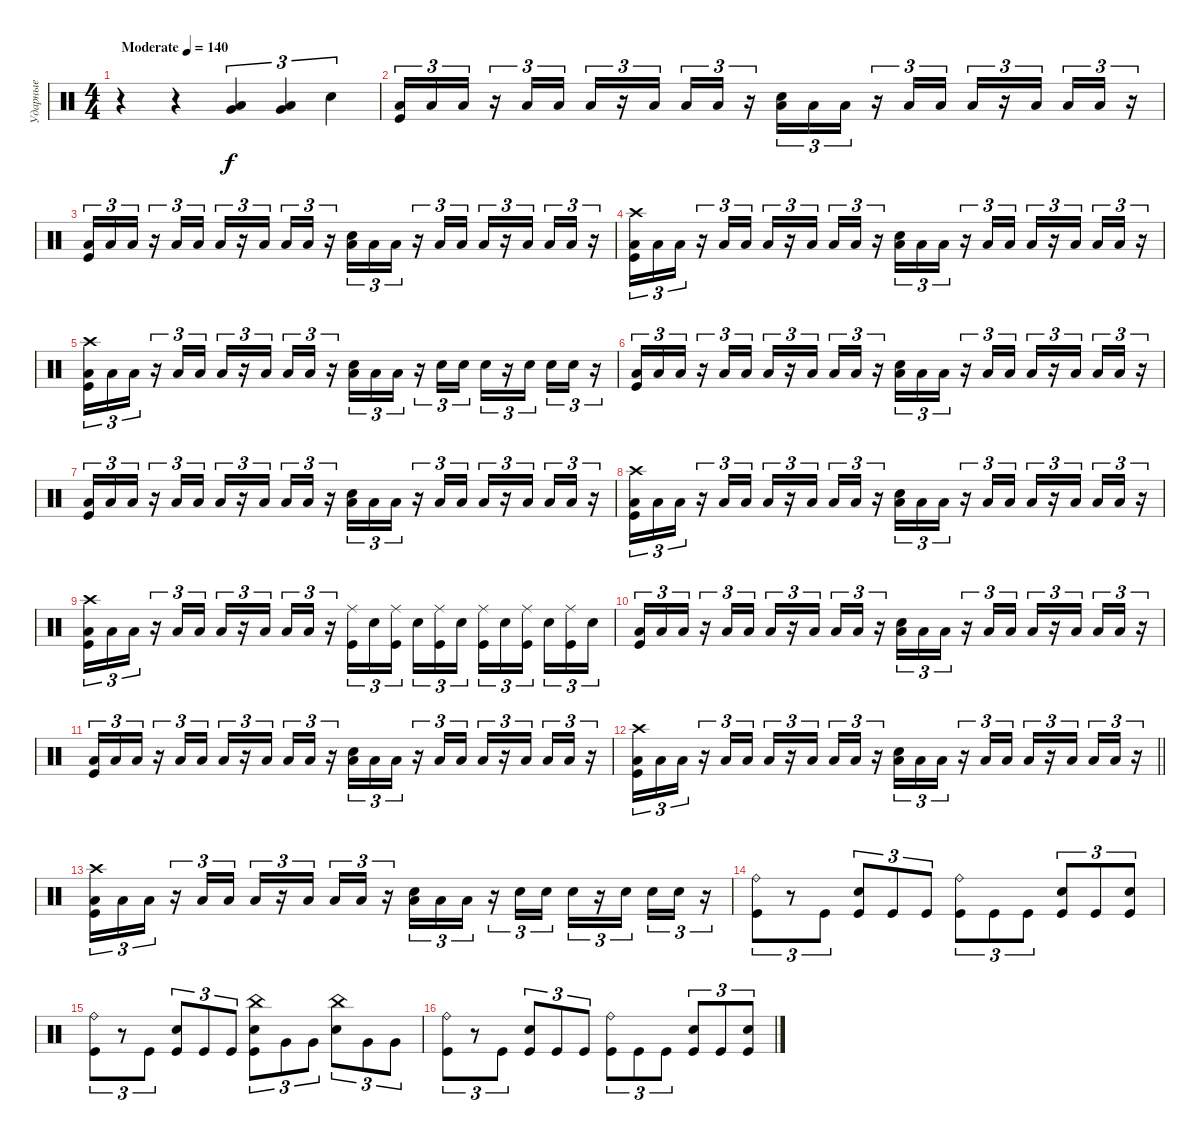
\track ("Ударные" "Ударные") {instrument percussion}
\staff {score}
\articulation defaults
\ts (4 4)
\tempo (140 "Moderate")
\clef neutral
\ks c
r.4{dy f} r.4 ("Very Low Tom (hit)" "Low Floor Tom (hit)").4{tu (3 2)} ("Very Low Tom (hit)" "Low Floor Tom (hit)").4{tu (3 2)} "Electric Snare (hit)".4{tu (3 2)} |
("Low Floor Tom (hit)" "Kick (hit)").16{tu (3 2)} "Low Floor Tom (hit)".16{tu (3 2)} "Low Floor Tom (hit)".16{tu (3 2)} r.16{tu (3 2)} "Low Floor Tom (hit)".16{tu (3 2)} "Low Floor Tom (hit)".16{tu (3 2)} "Low Floor Tom (hit)".16{tu (3 2)} r.16{tu (3 2)} "Low Floor Tom (hit)".16{tu (3 2) beam splitsecondary} "Low Floor Tom (hit)".16{tu (3 2)} "Low Floor Tom (hit)".16{tu (3 2)} r.16{tu (3 2)} ("Low Floor Tom (hit)" "Electric Snare (hit)").16{tu (3 2)} "Low Floor Tom (hit)".16{tu (3 2)} "Low Floor Tom (hit)".16{tu (3 2)} r.16{tu (3 2)} "Low Floor Tom (hit)".16{tu (3 2)} "Low Floor Tom (hit)".16{tu (3 2)} "Low Floor Tom (hit)".16{tu (3 2)} r.16{tu (3 2)} "Low Floor Tom (hit)".16{tu (3 2) beam splitsecondary} "Low Floor Tom (hit)".16{tu (3 2)} "Low Floor Tom (hit)".16{tu (3 2)} r.16{tu (3 2)} |
("Low Floor Tom (hit)" "Kick (hit)").16{tu (3 2)} "Low Floor Tom (hit)".16{tu (3 2)} "Low Floor Tom (hit)".16{tu (3 2)} r.16{tu (3 2)} "Low Floor Tom (hit)".16{tu (3 2)} "Low Floor Tom (hit)".16{tu (3 2)} "Low Floor Tom (hit)".16{tu (3 2)} r.16{tu (3 2)} "Low Floor Tom (hit)".16{tu (3 2) beam splitsecondary} "Low Floor Tom (hit)".16{tu (3 2)} "Low Floor Tom (hit)".16{tu (3 2)} r.16{tu (3 2)} ("Low Floor Tom (hit)" "Electric Snare (hit)").16{tu (3 2)} "Low Floor Tom (hit)".16{tu (3 2)} "Low Floor Tom (hit)".16{tu (3 2)} r.16{tu (3 2)} "Low Floor Tom (hit)".16{tu (3 2)} "Low Floor Tom (hit)".16{tu (3 2)} "Low Floor Tom (hit)".16{tu (3 2)} r.16{tu (3 2)} "Low Floor Tom (hit)".16{tu (3 2) beam splitsecondary} "Low Floor Tom (hit)".16{tu (3 2)} "Low Floor Tom (hit)".16{tu (3 2)} r.16{tu (3 2)} |
("Low Floor Tom (hit)" "Kick (hit)" "Crash high (hit)").16{tu (3 2)} "Low Floor Tom (hit)".16{tu (3 2)} "Low Floor Tom (hit)".16{tu (3 2)} r.16{tu (3 2)} "Low Floor Tom (hit)".16{tu (3 2)} "Low Floor Tom (hit)".16{tu (3 2)} "Low Floor Tom (hit)".16{tu (3 2)} r.16{tu (3 2)} "Low Floor Tom (hit)".16{tu (3 2) beam splitsecondary} "Low Floor Tom (hit)".16{tu (3 2)} "Low Floor Tom (hit)".16{tu (3 2)} r.16{tu (3 2)} ("Low Floor Tom (hit)" "Electric Snare (hit)").16{tu (3 2)} "Low Floor Tom (hit)".16{tu (3 2)} "Low Floor Tom (hit)".16{tu (3 2)} r.16{tu (3 2)} "Low Floor Tom (hit)".16{tu (3 2)} "Low Floor Tom (hit)".16{tu (3 2)} "Low Floor Tom (hit)".16{tu (3 2)} r.16{tu (3 2)} "Low Floor Tom (hit)".16{tu (3 2) beam splitsecondary} "Low Floor Tom (hit)".16{tu (3 2)} "Low Floor Tom (hit)".16{tu (3 2)} r.16{tu (3 2)} |
("Low Floor Tom (hit)" "Kick (hit)" "Crash high (hit)").16{tu (3 2)} "Low Floor Tom (hit)".16{tu (3 2)} "Low Floor Tom (hit)".16{tu (3 2)} r.16{tu (3 2)} "Low Floor Tom (hit)".16{tu (3 2)} "Low Floor Tom (hit)".16{tu (3 2)} "Low Floor Tom (hit)".16{tu (3 2)} r.16{tu (3 2)} "Low Floor Tom (hit)".16{tu (3 2) beam splitsecondary} "Low Floor Tom (hit)".16{tu (3 2)} "Low Floor Tom (hit)".16{tu (3 2)} r.16{tu (3 2)} ("Low Floor Tom (hit)" "Electric Snare (hit)").16{tu (3 2)} "Low Floor Tom (hit)".16{tu (3 2)} "Low Floor Tom (hit)".16{tu (3 2)} r.16{tu (3 2)} "Electric Snare (hit)".16{tu (3 2)} "Electric Snare (hit)".16{tu (3 2)} "Electric Snare (hit)".16{tu (3 2)} r.16{tu (3 2)} "Electric Snare (hit)".16{tu (3 2) beam splitsecondary} "Electric Snare (hit)".16{tu (3 2)} "Electric Snare (hit)".16{tu (3 2)} r.16{tu (3 2)} |
("Low Floor Tom (hit)" "Kick (hit)").16{tu (3 2)} "Low Floor Tom (hit)".16{tu (3 2)} "Low Floor Tom (hit)".16{tu (3 2)} r.16{tu (3 2)} "Low Floor Tom (hit)".16{tu (3 2)} "Low Floor Tom (hit)".16{tu (3 2)} "Low Floor Tom (hit)".16{tu (3 2)} r.16{tu (3 2)} "Low Floor Tom (hit)".16{tu (3 2) beam splitsecondary} "Low Floor Tom (hit)".16{tu (3 2)} "Low Floor Tom (hit)".16{tu (3 2)} r.16{tu (3 2)} ("Low Floor Tom (hit)" "Electric Snare (hit)").16{tu (3 2)} "Low Floor Tom (hit)".16{tu (3 2)} "Low Floor Tom (hit)".16{tu (3 2)} r.16{tu (3 2)} "Low Floor Tom (hit)".16{tu (3 2)} "Low Floor Tom (hit)".16{tu (3 2)} "Low Floor Tom (hit)".16{tu (3 2)} r.16{tu (3 2)} "Low Floor Tom (hit)".16{tu (3 2) beam splitsecondary} "Low Floor Tom (hit)".16{tu (3 2)} "Low Floor Tom (hit)".16{tu (3 2)} r.16{tu (3 2)} |
("Low Floor Tom (hit)" "Kick (hit)").16{tu (3 2)} "Low Floor Tom (hit)".16{tu (3 2)} "Low Floor Tom (hit)".16{tu (3 2)} r.16{tu (3 2)} "Low Floor Tom (hit)".16{tu (3 2)} "Low Floor Tom (hit)".16{tu (3 2)} "Low Floor Tom (hit)".16{tu (3 2)} r.16{tu (3 2)} "Low Floor Tom (hit)".16{tu (3 2) beam splitsecondary} "Low Floor Tom (hit)".16{tu (3 2)} "Low Floor Tom (hit)".16{tu (3 2)} r.16{tu (3 2)} ("Low Floor Tom (hit)" "Electric Snare (hit)").16{tu (3 2)} "Low Floor Tom (hit)".16{tu (3 2)} "Low Floor Tom (hit)".16{tu (3 2)} r.16{tu (3 2)} "Low Floor Tom (hit)".16{tu (3 2)} "Low Floor Tom (hit)".16{tu (3 2)} "Low Floor Tom (hit)".16{tu (3 2)} r.16{tu (3 2)} "Low Floor Tom (hit)".16{tu (3 2) beam splitsecondary} "Low Floor Tom (hit)".16{tu (3 2)} "Low Floor Tom (hit)".16{tu (3 2)} r.16{tu (3 2)} |
("Low Floor Tom (hit)" "Kick (hit)" "Crash high (hit)").16{tu (3 2)} "Low Floor Tom (hit)".16{tu (3 2)} "Low Floor Tom (hit)".16{tu (3 2)} r.16{tu (3 2)} "Low Floor Tom (hit)".16{tu (3 2)} "Low Floor Tom (hit)".16{tu (3 2)} "Low Floor Tom (hit)".16{tu (3 2)} r.16{tu (3 2)} "Low Floor Tom (hit)".16{tu (3 2) beam splitsecondary} "Low Floor Tom (hit)".16{tu (3 2)} "Low Floor Tom (hit)".16{tu (3 2)} r.16{tu (3 2)} ("Low Floor Tom (hit)" "Electric Snare (hit)").16{tu (3 2)} "Low Floor Tom (hit)".16{tu (3 2)} "Low Floor Tom (hit)".16{tu (3 2)} r.16{tu (3 2)} "Low Floor Tom (hit)".16{tu (3 2)} "Low Floor Tom (hit)".16{tu (3 2)} "Low Floor Tom (hit)".16{tu (3 2)} r.16{tu (3 2)} "Low Floor Tom (hit)".16{tu (3 2) beam splitsecondary} "Low Floor Tom (hit)".16{tu (3 2)} "Low Floor Tom (hit)".16{tu (3 2)} r.16{tu (3 2)} |
("Low Floor Tom (hit)" "Kick (hit)" "Crash high (hit)").16{tu (3 2)} "Low Floor Tom (hit)".16{tu (3 2)} "Low Floor Tom (hit)".16{tu (3 2)} r.16{tu (3 2)} "Low Floor Tom (hit)".16{tu (3 2)} "Low Floor Tom (hit)".16{tu (3 2)} "Low Floor Tom (hit)".16{tu (3 2)} r.16{tu (3 2)} "Low Floor Tom (hit)".16{tu (3 2) beam splitsecondary} "Low Floor Tom (hit)".16{tu (3 2)} "Low Floor Tom (hit)".16{tu (3 2)} r.16{tu (3 2)} ("Ride (middle)" "Kick (hit)").16{tu (3 2)} "Electric Snare (hit)".16{tu (3 2)} ("Ride (middle)" "Kick (hit)").16{tu (3 2) beam splitsecondary} "Electric Snare (hit)".16{tu (3 2)} ("Ride (middle)" "Kick (hit)").16{tu (3 2)} "Electric Snare (hit)".16{tu (3 2)} ("Ride (middle)" "Kick (hit)").16{tu (3 2)} "Electric Snare (hit)".16{tu (3 2)} ("Ride (middle)" "Kick (hit)").16{tu (3 2) beam splitsecondary} "Electric Snare (hit)".16{tu (3 2)} ("Ride (middle)" "Kick (hit)").16{tu (3 2)} "Electric Snare (hit)".16{tu (3 2)} |
("Low Floor Tom (hit)" "Kick (hit)").16{tu (3 2)} "Low Floor Tom (hit)".16{tu (3 2)} "Low Floor Tom (hit)".16{tu (3 2)} r.16{tu (3 2)} "Low Floor Tom (hit)".16{tu (3 2)} "Low Floor Tom (hit)".16{tu (3 2)} "Low Floor Tom (hit)".16{tu (3 2)} r.16{tu (3 2)} "Low Floor Tom (hit)".16{tu (3 2) beam splitsecondary} "Low Floor Tom (hit)".16{tu (3 2)} "Low Floor Tom (hit)".16{tu (3 2)} r.16{tu (3 2)} ("Low Floor Tom (hit)" "Electric Snare (hit)").16{tu (3 2)} "Low Floor Tom (hit)".16{tu (3 2)} "Low Floor Tom (hit)".16{tu (3 2)} r.16{tu (3 2)} "Low Floor Tom (hit)".16{tu (3 2)} "Low Floor Tom (hit)".16{tu (3 2)} "Low Floor Tom (hit)".16{tu (3 2)} r.16{tu (3 2)} "Low Floor Tom (hit)".16{tu (3 2) beam splitsecondary} "Low Floor Tom (hit)".16{tu (3 2)} "Low Floor Tom (hit)".16{tu (3 2)} r.16{tu (3 2)} |
("Low Floor Tom (hit)" "Kick (hit)").16{tu (3 2)} "Low Floor Tom (hit)".16{tu (3 2)} "Low Floor Tom (hit)".16{tu (3 2)} r.16{tu (3 2)} "Low Floor Tom (hit)".16{tu (3 2)} "Low Floor Tom (hit)".16{tu (3 2)} "Low Floor Tom (hit)".16{tu (3 2)} r.16{tu (3 2)} "Low Floor Tom (hit)".16{tu (3 2) beam splitsecondary} "Low Floor Tom (hit)".16{tu (3 2)} "Low Floor Tom (hit)".16{tu (3 2)} r.16{tu (3 2)} ("Low Floor Tom (hit)" "Electric Snare (hit)").16{tu (3 2)} "Low Floor Tom (hit)".16{tu (3 2)} "Low Floor Tom (hit)".16{tu (3 2)} r.16{tu (3 2)} "Low Floor Tom (hit)".16{tu (3 2)} "Low Floor Tom (hit)".16{tu (3 2)} "Low Floor Tom (hit)".16{tu (3 2)} r.16{tu (3 2)} "Low Floor Tom (hit)".16{tu (3 2) beam splitsecondary} "Low Floor Tom (hit)".16{tu (3 2)} "Low Floor Tom (hit)".16{tu (3 2)} r.16{tu (3 2)} |
\barLineRight lightlight
("Low Floor Tom (hit)" "Kick (hit)" "Crash high (hit)").16{tu (3 2)} "Low Floor Tom (hit)".16{tu (3 2)} "Low Floor Tom (hit)".16{tu (3 2)} r.16{tu (3 2)} "Low Floor Tom (hit)".16{tu (3 2)} "Low Floor Tom (hit)".16{tu (3 2)} "Low Floor Tom (hit)".16{tu (3 2)} r.16{tu (3 2)} "Low Floor Tom (hit)".16{tu (3 2) beam splitsecondary} "Low Floor Tom (hit)".16{tu (3 2)} "Low Floor Tom (hit)".16{tu (3 2)} r.16{tu (3 2)} ("Low Floor Tom (hit)" "Electric Snare (hit)").16{tu (3 2)} "Low Floor Tom (hit)".16{tu (3 2)} "Low Floor Tom (hit)".16{tu (3 2)} r.16{tu (3 2)} "Low Floor Tom (hit)".16{tu (3 2)} "Low Floor Tom (hit)".16{tu (3 2)} "Low Floor Tom (hit)".16{tu (3 2)} r.16{tu (3 2)} "Low Floor Tom (hit)".16{tu (3 2) beam splitsecondary} "Low Floor Tom (hit)".16{tu (3 2)} "Low Floor Tom (hit)".16{tu (3 2)} r.16{tu (3 2)} |
\section ("" " ")
("Low Floor Tom (hit)" "Kick (hit)" "Crash high (hit)").16{tu (3 2)} "Low Floor Tom (hit)".16{tu (3 2)} "Low Floor Tom (hit)".16{tu (3 2)} r.16{tu (3 2)} "Low Floor Tom (hit)".16{tu (3 2)} "Low Floor Tom (hit)".16{tu (3 2)} "Low Floor Tom (hit)".16{tu (3 2)} r.16{tu (3 2)} "Low Floor Tom (hit)".16{tu (3 2) beam splitsecondary} "Low Floor Tom (hit)".16{tu (3 2)} "Low Floor Tom (hit)".16{tu (3 2)} r.16{tu (3 2)} ("Low Floor Tom (hit)" "Electric Snare (hit)").16{tu (3 2)} "Low Floor Tom (hit)".16{tu (3 2)} "Low Floor Tom (hit)".16{tu (3 2)} r.16{tu (3 2)} "Electric Snare (hit)".16{tu (3 2)} "Electric Snare (hit)".16{tu (3 2)} "Electric Snare (hit)".16{tu (3 2)} r.16{tu (3 2)} "Electric Snare (hit)".16{tu (3 2) beam splitsecondary} "Electric Snare (hit)".16{tu (3 2)} "Electric Snare (hit)".16{tu (3 2)} r.16{tu (3 2)} |
("Ride (bell)" "Kick (hit)").8{tu (3 2)} r.8{tu (3 2)} "Kick (hit)".8{tu (3 2)} ("Electric Snare (hit)" "Kick (hit)").8{tu (3 2)} "Kick (hit)".8{tu (3 2)} "Kick (hit)".8{tu (3 2)} ("Ride (bell)" "Kick (hit)").8{tu (3 2)} "Kick (hit)".8{tu (3 2)} "Kick (hit)".8{tu (3 2)} ("Electric Snare (hit)" "Kick (hit)").8{tu (3 2)} "Kick (hit)".8{tu (3 2)} ("Electric Snare (hit)" "Kick (hit)").8{tu (3 2)} |
("Ride (bell)" "Kick (hit)").8{tu (3 2)} r.8{tu (3 2)} "Kick (hit)".8{tu (3 2)} ("Electric Snare (hit)" "Kick (hit)").8{tu (3 2)} "Kick (hit)".8{tu (3 2)} "Kick (hit)".8{tu (3 2)} ("Electric Snare (hit)" "Kick (hit)" "China (hit)").8{tu (3 2)} "Very Low Tom (hit)".8{tu (3 2)} "Very Low Tom (hit)".8{tu (3 2)} ("Electric Snare (hit)" "China (hit)").8{tu (3 2)} "Very Low Tom (hit)".8{tu (3 2)} "Very Low Tom (hit)".8{tu (3 2)} |
("Ride (bell)" "Kick (hit)").8{tu (3 2)} r.8{tu (3 2)} "Kick (hit)".8{tu (3 2)} ("Electric Snare (hit)" "Kick (hit)").8{tu (3 2)} "Kick (hit)".8{tu (3 2)} "Kick (hit)".8{tu (3 2)} ("Ride (bell)" "Kick (hit)").8{tu (3 2)} "Kick (hit)".8{tu (3 2)} "Kick (hit)".8{tu (3 2)} ("Electric Snare (hit)" "Kick (hit)").8{tu (3 2)} "Kick (hit)".8{tu (3 2)} ("Electric Snare (hit)" "Kick (hit)").8{tu (3 2)}
